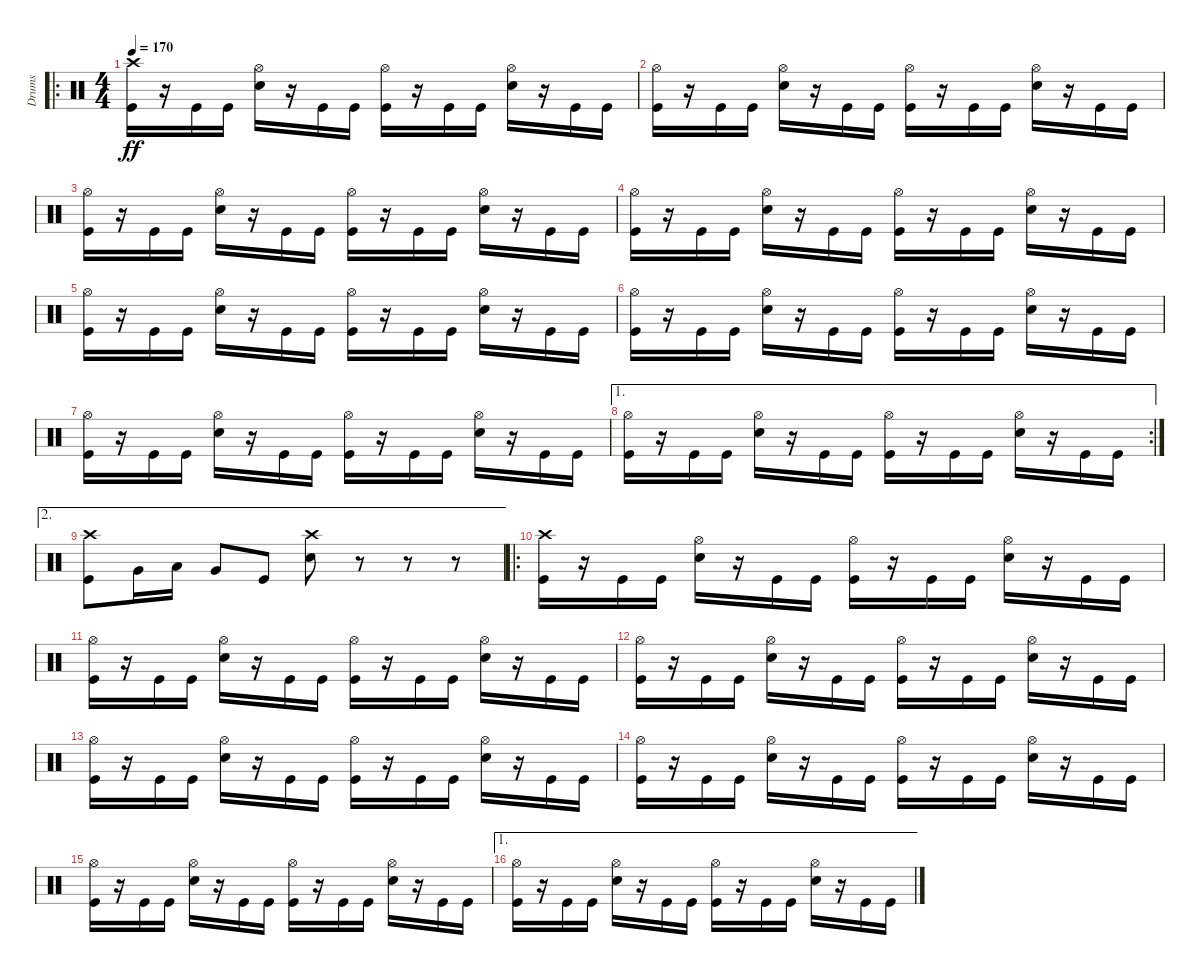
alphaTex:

\track ("Drums" "Drums") {instrument percussion}
\staff {score}
\articulation defaults
\ro
\ts (4 4)
\tempo 170
\clef neutral
\ks c
("Crash high (hit)" "Kick (hit)").16{dy ff} r.16 "Kick (hit)".16 "Kick (hit)".16 ("Hi-Hat (open)" "Snare (hit) 2").16 r.16 "Kick (hit)".16 "Kick (hit)".16 ("Hi-Hat (open)" "Kick (hit)").16 r.16 "Kick (hit)".16 "Kick (hit)".16 ("Hi-Hat (open)" "Snare (hit) 2").16 r.16 "Kick (hit)".16 "Kick (hit)".16 |
("Hi-Hat (open)" "Kick (hit)").16 r.16 "Kick (hit)".16 "Kick (hit)".16 ("Hi-Hat (open)" "Snare (hit) 2").16 r.16 "Kick (hit)".16 "Kick (hit)".16 ("Hi-Hat (open)" "Kick (hit)").16 r.16 "Kick (hit)".16 "Kick (hit)".16 ("Hi-Hat (open)" "Snare (hit) 2").16 r.16 "Kick (hit)".16 "Kick (hit)".16 |
("Hi-Hat (open)" "Kick (hit)").16 r.16 "Kick (hit)".16 "Kick (hit)".16 ("Hi-Hat (open)" "Snare (hit) 2").16 r.16 "Kick (hit)".16 "Kick (hit)".16 ("Hi-Hat (open)" "Kick (hit)").16 r.16 "Kick (hit)".16 "Kick (hit)".16 ("Hi-Hat (open)" "Snare (hit) 2").16 r.16 "Kick (hit)".16 "Kick (hit)".16 |
("Hi-Hat (open)" "Kick (hit)").16 r.16 "Kick (hit)".16 "Kick (hit)".16 ("Hi-Hat (open)" "Snare (hit) 2").16 r.16 "Kick (hit)".16 "Kick (hit)".16 ("Hi-Hat (open)" "Kick (hit)").16 r.16 "Kick (hit)".16 "Kick (hit)".16 ("Hi-Hat (open)" "Snare (hit) 2").16 r.16 "Kick (hit)".16 "Kick (hit)".16 |
("Hi-Hat (open)" "Kick (hit)").16 r.16 "Kick (hit)".16 "Kick (hit)".16 ("Hi-Hat (open)" "Snare (hit) 2").16 r.16 "Kick (hit)".16 "Kick (hit)".16 ("Hi-Hat (open)" "Kick (hit)").16 r.16 "Kick (hit)".16 "Kick (hit)".16 ("Hi-Hat (open)" "Snare (hit) 2").16 r.16 "Kick (hit)".16 "Kick (hit)".16 |
("Hi-Hat (open)" "Kick (hit)").16 r.16 "Kick (hit)".16 "Kick (hit)".16 ("Hi-Hat (open)" "Snare (hit) 2").16 r.16 "Kick (hit)".16 "Kick (hit)".16 ("Hi-Hat (open)" "Kick (hit)").16 r.16 "Kick (hit)".16 "Kick (hit)".16 ("Hi-Hat (open)" "Snare (hit) 2").16 r.16 "Kick (hit)".16 "Kick (hit)".16 |
("Hi-Hat (open)" "Kick (hit)").16 r.16 "Kick (hit)".16 "Kick (hit)".16 ("Hi-Hat (open)" "Snare (hit) 2").16 r.16 "Kick (hit)".16 "Kick (hit)".16 ("Hi-Hat (open)" "Kick (hit)").16 r.16 "Kick (hit)".16 "Kick (hit)".16 ("Hi-Hat (open)" "Snare (hit) 2").16 r.16 "Kick (hit)".16 "Kick (hit)".16 |
\ae 1
\rc 2
("Hi-Hat (open)" "Kick (hit)").16 r.16 "Kick (hit)".16 "Kick (hit)".16 ("Hi-Hat (open)" "Snare (hit) 2").16 r.16 "Kick (hit)".16 "Kick (hit)".16 ("Hi-Hat (open)" "Kick (hit)").16 r.16 "Kick (hit)".16 "Kick (hit)".16 ("Hi-Hat (open)" "Snare (hit) 2").16 r.16 "Kick (hit)".16 "Kick (hit)".16 |
\ae 2
("Crash high (hit)" "Kick (hit)").8 "Very Low Tom (hit)".16 "Low Floor Tom (hit)".16 "Very Low Tom (hit)".8 "Kick (hit)".8 ("Crash high (hit)" "Snare (hit) 2").8 r.8 r.8 r.8 |
\ro
("Crash high (hit)" "Kick (hit)").16 r.16 "Kick (hit)".16 "Kick (hit)".16 ("Hi-Hat (open)" "Snare (hit) 2").16 r.16 "Kick (hit)".16 "Kick (hit)".16 ("Hi-Hat (open)" "Kick (hit)").16 r.16 "Kick (hit)".16 "Kick (hit)".16 ("Hi-Hat (open)" "Snare (hit) 2").16 r.16 "Kick (hit)".16 "Kick (hit)".16 |
("Hi-Hat (open)" "Kick (hit)").16 r.16 "Kick (hit)".16 "Kick (hit)".16 ("Hi-Hat (open)" "Snare (hit) 2").16 r.16 "Kick (hit)".16 "Kick (hit)".16 ("Hi-Hat (open)" "Kick (hit)").16 r.16 "Kick (hit)".16 "Kick (hit)".16 ("Hi-Hat (open)" "Snare (hit) 2").16 r.16 "Kick (hit)".16 "Kick (hit)".16 |
("Hi-Hat (open)" "Kick (hit)").16 r.16 "Kick (hit)".16 "Kick (hit)".16 ("Hi-Hat (open)" "Snare (hit) 2").16 r.16 "Kick (hit)".16 "Kick (hit)".16 ("Hi-Hat (open)" "Kick (hit)").16 r.16 "Kick (hit)".16 "Kick (hit)".16 ("Hi-Hat (open)" "Snare (hit) 2").16 r.16 "Kick (hit)".16 "Kick (hit)".16 |
("Hi-Hat (open)" "Kick (hit)").16 r.16 "Kick (hit)".16 "Kick (hit)".16 ("Hi-Hat (open)" "Snare (hit) 2").16 r.16 "Kick (hit)".16 "Kick (hit)".16 ("Hi-Hat (open)" "Kick (hit)").16 r.16 "Kick (hit)".16 "Kick (hit)".16 ("Hi-Hat (open)" "Snare (hit) 2").16 r.16 "Kick (hit)".16 "Kick (hit)".16 |
("Hi-Hat (open)" "Kick (hit)").16 r.16 "Kick (hit)".16 "Kick (hit)".16 ("Hi-Hat (open)" "Snare (hit) 2").16 r.16 "Kick (hit)".16 "Kick (hit)".16 ("Hi-Hat (open)" "Kick (hit)").16 r.16 "Kick (hit)".16 "Kick (hit)".16 ("Hi-Hat (open)" "Snare (hit) 2").16 r.16 "Kick (hit)".16 "Kick (hit)".16 |
("Hi-Hat (open)" "Kick (hit)").16 r.16 "Kick (hit)".16 "Kick (hit)".16 ("Hi-Hat (open)" "Snare (hit) 2").16 r.16 "Kick (hit)".16 "Kick (hit)".16 ("Hi-Hat (open)" "Kick (hit)").16 r.16 "Kick (hit)".16 "Kick (hit)".16 ("Hi-Hat (open)" "Snare (hit) 2").16 r.16 "Kick (hit)".16 "Kick (hit)".16 |
\ae 1
("Hi-Hat (open)" "Kick (hit)").16 r.16 "Kick (hit)".16 "Kick (hit)".16 ("Hi-Hat (open)" "Snare (hit) 2").16 r.16 "Kick (hit)".16 "Kick (hit)".16 ("Hi-Hat (open)" "Kick (hit)").16 r.16 "Kick (hit)".16 "Kick (hit)".16 ("Hi-Hat (open)" "Snare (hit) 2").16 r.16 "Kick (hit)".16 "Kick (hit)".16
